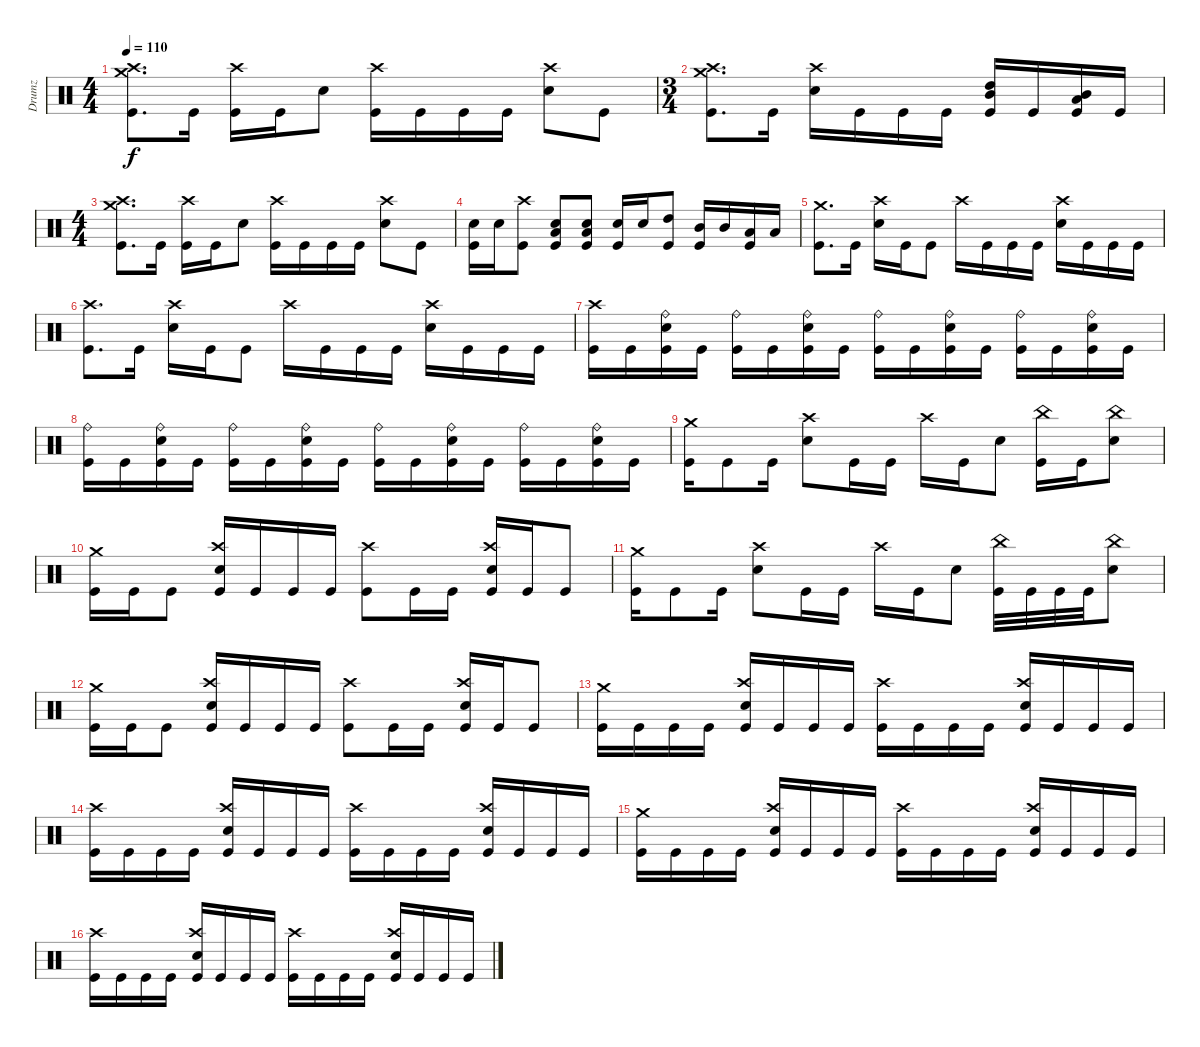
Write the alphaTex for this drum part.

\track ("Drumz" "Drumz") {instrument percussion}
\staff {score}
\articulation defaults
\ts (4 4)
\tempo 110
\clef neutral
\ks c
("Kick (hit)" "Crash high (hit)" "Crash medium (hit)").8{d dy f} "Kick (hit)".16 ("Crash high (hit)" "Kick (hit)").16 "Kick (hit)".16 "Snare (hit) 2".8 ("Crash high (hit)" "Kick (hit)").16 "Kick (hit)".16 "Kick (hit)".16 "Kick (hit)".16 ("Crash high (hit)" "Snare (hit) 2").8 "Kick (hit)".8 |
\ts (3 4)
("Kick (hit)" "Crash high (hit)" "Crash medium (hit)").8{d} "Kick (hit)".16 ("Crash high (hit)" "Snare (hit) 2").16 "Kick (hit)".16 "Kick (hit)".16 "Kick (hit)".16 ("High Tom (hit)" "Mid Tom (hit)" "Kick (hit)").16 "Kick (hit)".16 ("Mid Tom (hit)" "Low Tom (hit)" "Kick (hit)").16 "Kick (hit)".16 |
\ts (4 4)
("Kick (hit)" "Crash high (hit)" "Crash medium (hit)").8{d} "Kick (hit)".16 ("Crash high (hit)" "Kick (hit)").16 "Kick (hit)".16 "Snare (hit) 2".8 ("Crash high (hit)" "Kick (hit)").16 "Kick (hit)".16 "Kick (hit)".16 "Kick (hit)".16 ("Crash high (hit)" "Snare (hit) 2").8 "Kick (hit)".8 |
("Snare (hit) 2" "Kick (hit)").16 "Snare (hit) 2".16 ("Kick (hit)" "Crash high (hit)").8 ("Snare (hit) 2" "Kick (hit)" "Low Tom (hit)").8 ("Kick (hit)" "Snare (hit) 2" "Low Tom (hit)").8 ("Snare (hit) 2" "Kick (hit)").16 "Snare (hit) 2".16 ("Kick (hit)" "High Tom (hit)").8 ("Kick (hit)" "Mid Tom (hit)").16 "Mid Tom (hit)".16 ("Low Tom (hit)" "Kick (hit)").16 "Low Tom (hit)".16 |
("Kick (hit)" "Crash medium (hit)").8{d} "Kick (hit)".16 ("Snare (hit) 2" "Crash high (hit)").16 "Kick (hit)".16 "Kick (hit)".8 "Crash high (hit)".16 "Kick (hit)".16 "Kick (hit)".16 "Kick (hit)".16 ("Snare (hit) 2" "Crash high (hit)").16 "Kick (hit)".16 "Kick (hit)".16 "Kick (hit)".16 |
("Kick (hit)" "Crash high (hit)").8{d} "Kick (hit)".16 ("Snare (hit) 2" "Crash high (hit)").16 "Kick (hit)".16 "Kick (hit)".8 "Crash high (hit)".16 "Kick (hit)".16 "Kick (hit)".16 "Kick (hit)".16 ("Snare (hit) 2" "Crash high (hit)").16 "Kick (hit)".16 "Kick (hit)".16 "Kick (hit)".16 |
("Crash high (hit)" "Kick (hit)").16 "Kick (hit)".16 ("Kick (hit)" "Ride (bell)" "Snare (hit) 2").16 "Kick (hit)".16 ("Kick (hit)" "Ride (bell)").16 "Kick (hit)".16 ("Kick (hit)" "Ride (bell)" "Snare (hit) 2").16 "Kick (hit)".16 ("Kick (hit)" "Ride (bell)").16 "Kick (hit)".16 ("Kick (hit)" "Ride (bell)" "Snare (hit) 2").16 "Kick (hit)".16 ("Kick (hit)" "Ride (bell)").16 "Kick (hit)".16 ("Kick (hit)" "Ride (bell)" "Snare (hit) 2").16 "Kick (hit)".16 |
("Kick (hit)" "Ride (bell)").16 "Kick (hit)".16 ("Kick (hit)" "Ride (bell)" "Snare (hit) 2").16 "Kick (hit)".16 ("Kick (hit)" "Ride (bell)").16 "Kick (hit)".16 ("Kick (hit)" "Ride (bell)" "Snare (hit) 2").16 "Kick (hit)".16 ("Kick (hit)" "Ride (bell)").16 "Kick (hit)".16 ("Kick (hit)" "Ride (bell)" "Snare (hit) 2").16 "Kick (hit)".16 ("Kick (hit)" "Ride (bell)").16 "Kick (hit)".16 ("Kick (hit)" "Ride (bell)" "Snare (hit) 2").16 "Kick (hit)".16 |
("Kick (hit)" "Crash medium (hit)").16 "Kick (hit)".8 "Kick (hit)".16 ("Snare (hit) 2" "Crash high (hit)").8 "Kick (hit)".16 "Kick (hit)".16 "Crash high (hit)".16 "Kick (hit)".16 "Snare (hit) 2".8 ("Kick (hit)" "China (hit)").16 "Kick (hit)".16 ("Snare (hit) 2" "China (hit)").8 |
("Kick (hit)" "Crash medium (hit)").16 "Kick (hit)".16 "Kick (hit)".8 ("Snare (hit) 2" "Kick (hit)" "Crash high (hit)").16 "Kick (hit)".16 "Kick (hit)".16 "Kick (hit)".16 ("Kick (hit)" "Crash high (hit)").8 "Kick (hit)".16 "Kick (hit)".16 ("Crash high (hit)" "Kick (hit)" "Snare (hit) 2").16 "Kick (hit)".16 "Kick (hit)".8 |
("Kick (hit)" "Crash medium (hit)").16 "Kick (hit)".8 "Kick (hit)".16 ("Snare (hit) 2" "Crash high (hit)").8 "Kick (hit)".16 "Kick (hit)".16 "Crash high (hit)".16 "Kick (hit)".16 "Snare (hit) 2".8 ("Kick (hit)" "China (hit)").32 "Kick (hit)".32 "Kick (hit)".32 "Kick (hit)".32 ("Snare (hit) 2" "China (hit)").8 |
("Kick (hit)" "Crash medium (hit)").16 "Kick (hit)".16 "Kick (hit)".8 ("Snare (hit) 2" "Kick (hit)" "Crash high (hit)").16 "Kick (hit)".16 "Kick (hit)".16 "Kick (hit)".16 ("Kick (hit)" "Crash high (hit)").8 "Kick (hit)".16 "Kick (hit)".16 ("Crash high (hit)" "Kick (hit)" "Snare (hit) 2").16 "Kick (hit)".16 "Kick (hit)".8 |
("Kick (hit)" "Crash medium (hit)").16 "Kick (hit)".16 "Kick (hit)".16 "Kick (hit)".16 ("Snare (hit) 2" "Crash high (hit)" "Kick (hit)").16 "Kick (hit)".16 "Kick (hit)".16 "Kick (hit)".16 ("Crash high (hit)" "Kick (hit)").16 "Kick (hit)".16 "Kick (hit)".16 "Kick (hit)".16 ("Snare (hit) 2" "Crash high (hit)" "Kick (hit)").16 "Kick (hit)".16 "Kick (hit)".16 "Kick (hit)".16 |
("Crash high (hit)" "Kick (hit)").16 "Kick (hit)".16 "Kick (hit)".16 "Kick (hit)".16 ("Snare (hit) 2" "Crash high (hit)" "Kick (hit)").16 "Kick (hit)".16 "Kick (hit)".16 "Kick (hit)".16 ("Crash high (hit)" "Kick (hit)").16 "Kick (hit)".16 "Kick (hit)".16 "Kick (hit)".16 ("Snare (hit) 2" "Crash high (hit)" "Kick (hit)").16 "Kick (hit)".16 "Kick (hit)".16 "Kick (hit)".16 |
("Kick (hit)" "Crash medium (hit)").16 "Kick (hit)".16 "Kick (hit)".16 "Kick (hit)".16 ("Snare (hit) 2" "Crash high (hit)" "Kick (hit)").16 "Kick (hit)".16 "Kick (hit)".16 "Kick (hit)".16 ("Crash high (hit)" "Kick (hit)").16 "Kick (hit)".16 "Kick (hit)".16 "Kick (hit)".16 ("Snare (hit) 2" "Crash high (hit)" "Kick (hit)").16 "Kick (hit)".16 "Kick (hit)".16 "Kick (hit)".16 |
("Crash high (hit)" "Kick (hit)").16 "Kick (hit)".16 "Kick (hit)".16 "Kick (hit)".16 ("Snare (hit) 2" "Crash high (hit)" "Kick (hit)").16 "Kick (hit)".16 "Kick (hit)".16 "Kick (hit)".16 ("Crash high (hit)" "Kick (hit)").16 "Kick (hit)".16 "Kick (hit)".16 "Kick (hit)".16 ("Snare (hit) 2" "Crash high (hit)" "Kick (hit)").16 "Kick (hit)".16 "Kick (hit)".16 "Kick (hit)".16
